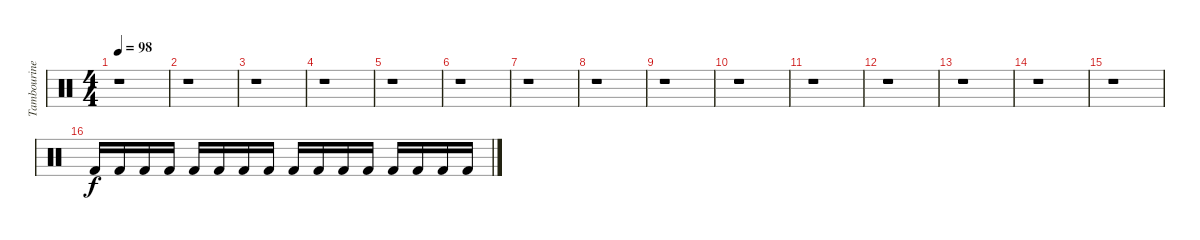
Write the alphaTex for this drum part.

\track ("Tambourine" "Tambourine") {instrument percussion}
\staff {score}
\articulation defaults
\ts (4 4)
\tempo 98
\clef neutral
\ks c
r.1{dy f} |
r.1 |
r.1 |
r.1 |
r.1 |
r.1 |
r.1 |
r.1 |
r.1 |
r.1 |
r.1 |
r.1 |
r.1 |
r.1 |
r.1 |
"Kick (hit) 2".16 "Kick (hit) 2".16 "Kick (hit) 2".16 "Kick (hit) 2".16 "Kick (hit) 2".16 "Kick (hit) 2".16 "Kick (hit) 2".16 "Kick (hit) 2".16 "Kick (hit) 2".16 "Kick (hit) 2".16 "Kick (hit) 2".16 "Kick (hit) 2".16 "Kick (hit) 2".16 "Kick (hit) 2".16 "Kick (hit) 2".16 "Kick (hit) 2".16
